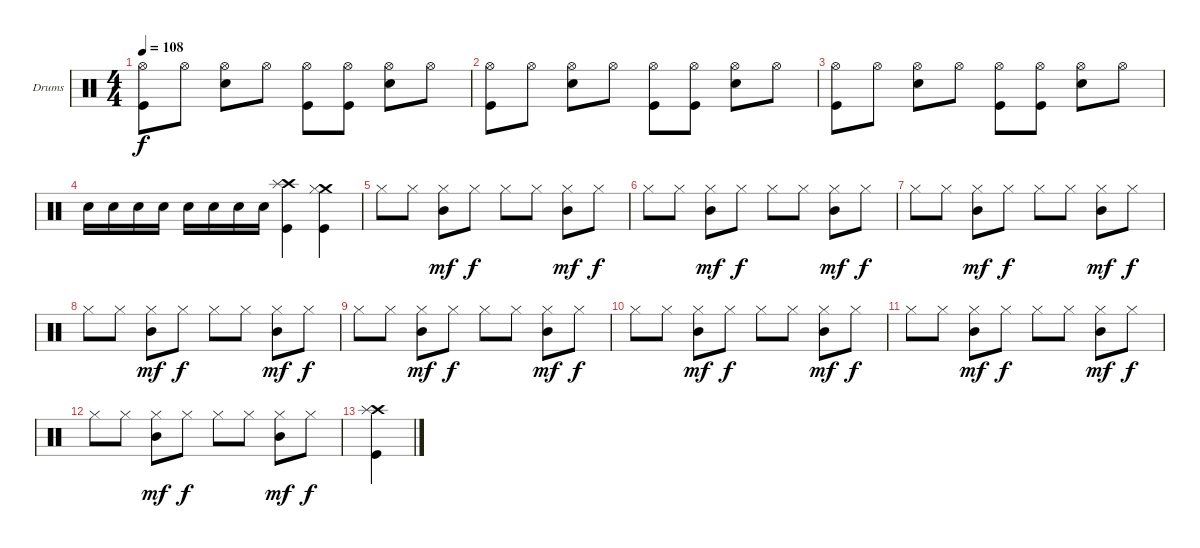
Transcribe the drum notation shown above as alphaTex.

\defaultSystemsLayout 4
\bracketExtendMode groupsimilarinstruments
\firstSystemTrackNameOrientation horizontal
\otherSystemsTrackNameOrientation horizontal
\track ("Drumkit" "Drums") {instrument percussion}
\staff {score}
\articulation defaults
\ts (4 4)
\tempo 108
\clef neutral
\ks c
("Kick (hit)" "Hi-Hat (open)").8{dy f} "Hi-Hat (open)".8 ("Snare (hit) 2" "Hi-Hat (open)").8 "Hi-Hat (open)".8 ("Hi-Hat (open)" "Kick (hit)").8 ("Hi-Hat (open)" "Kick (hit)").8 ("Hi-Hat (open)" "Snare (hit) 2").8 "Hi-Hat (open)".8 |
("Kick (hit)" "Hi-Hat (open)").8 "Hi-Hat (open)".8 ("Snare (hit) 2" "Hi-Hat (open)").8 "Hi-Hat (open)".8 ("Hi-Hat (open)" "Kick (hit)").8 ("Hi-Hat (open)" "Kick (hit)").8 ("Hi-Hat (open)" "Snare (hit) 2").8 "Hi-Hat (open)".8 |
("Kick (hit)" "Hi-Hat (open)").8 "Hi-Hat (open)".8 ("Snare (hit) 2" "Hi-Hat (open)").8 "Hi-Hat (open)".8 ("Hi-Hat (open)" "Kick (hit)").8 ("Hi-Hat (open)" "Kick (hit)").8 ("Hi-Hat (open)" "Snare (hit) 2").8 "Hi-Hat (open)".8 |
"Snare (hit) 2".16 "Snare (hit) 2".16 "Snare (hit) 2".16 "Snare (hit) 2".16 "Snare (hit) 2".16 "Snare (hit) 2".16 "Snare (hit) 2".16 "Snare (hit) 2".16 ("Kick (hit)" "Crash high (hit)" "Splash (hit)").4 ("Kick (hit)" "Crash medium (hit)" "Hi-Hat (closed)").4 |
"Hi-Hat (closed)".8 "Hi-Hat (closed)".8 ("Hi-Hat (closed)" "Mid Tom (hit)").8{dy mf} "Hi-Hat (closed)".8{dy f} "Hi-Hat (closed)".8 "Hi-Hat (closed)".8 ("Hi-Hat (closed)" "Mid Tom (hit)").8{dy mf} "Hi-Hat (closed)".8{dy f} |
"Hi-Hat (closed)".8 "Hi-Hat (closed)".8 ("Hi-Hat (closed)" "Mid Tom (hit)").8{dy mf} "Hi-Hat (closed)".8{dy f} "Hi-Hat (closed)".8 "Hi-Hat (closed)".8 ("Hi-Hat (closed)" "Mid Tom (hit)").8{dy mf} "Hi-Hat (closed)".8{dy f} |
"Hi-Hat (closed)".8 "Hi-Hat (closed)".8 ("Hi-Hat (closed)" "Mid Tom (hit)").8{dy mf} "Hi-Hat (closed)".8{dy f} "Hi-Hat (closed)".8 "Hi-Hat (closed)".8 ("Hi-Hat (closed)" "Mid Tom (hit)").8{dy mf} "Hi-Hat (closed)".8{dy f} |
"Hi-Hat (closed)".8 "Hi-Hat (closed)".8 ("Hi-Hat (closed)" "Mid Tom (hit)").8{dy mf} "Hi-Hat (closed)".8{dy f} "Hi-Hat (closed)".8 "Hi-Hat (closed)".8 ("Hi-Hat (closed)" "Mid Tom (hit)").8{dy mf} "Hi-Hat (closed)".8{dy f} |
"Hi-Hat (closed)".8 "Hi-Hat (closed)".8 ("Hi-Hat (closed)" "Mid Tom (hit)").8{dy mf} "Hi-Hat (closed)".8{dy f} "Hi-Hat (closed)".8 "Hi-Hat (closed)".8 ("Hi-Hat (closed)" "Mid Tom (hit)").8{dy mf} "Hi-Hat (closed)".8{dy f} |
"Hi-Hat (closed)".8 "Hi-Hat (closed)".8 ("Hi-Hat (closed)" "Mid Tom (hit)").8{dy mf} "Hi-Hat (closed)".8{dy f} "Hi-Hat (closed)".8 "Hi-Hat (closed)".8 ("Hi-Hat (closed)" "Mid Tom (hit)").8{dy mf} "Hi-Hat (closed)".8{dy f} |
"Hi-Hat (closed)".8 "Hi-Hat (closed)".8 ("Hi-Hat (closed)" "Mid Tom (hit)").8{dy mf} "Hi-Hat (closed)".8{dy f} "Hi-Hat (closed)".8 "Hi-Hat (closed)".8 ("Hi-Hat (closed)" "Mid Tom (hit)").8{dy mf} "Hi-Hat (closed)".8{dy f} |
"Hi-Hat (closed)".8 "Hi-Hat (closed)".8 ("Hi-Hat (closed)" "Mid Tom (hit)").8{dy mf} "Hi-Hat (closed)".8{dy f} "Hi-Hat (closed)".8 "Hi-Hat (closed)".8 ("Hi-Hat (closed)" "Mid Tom (hit)").8{dy mf} "Hi-Hat (closed)".8{dy f} |
("Kick (hit)" "Crash high (hit)" "Splash (hit)").4
